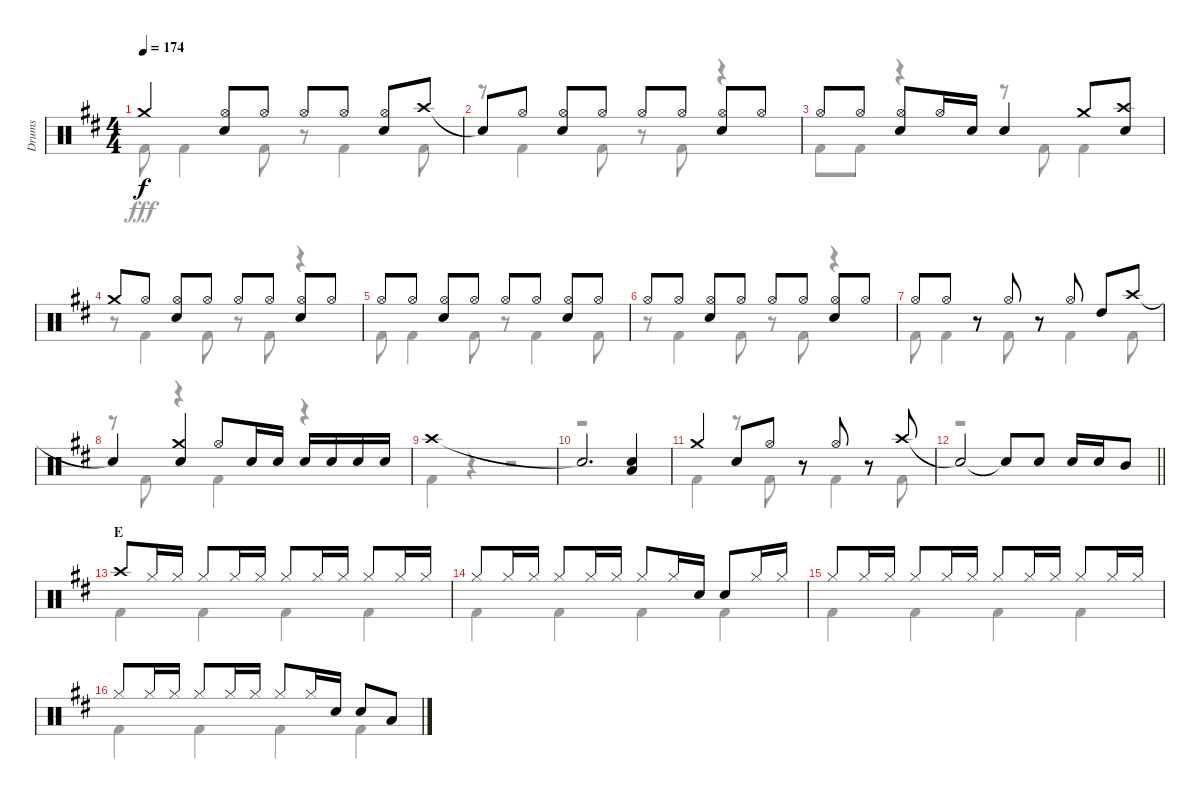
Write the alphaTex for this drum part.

\track ("Drums" "Drums") {instrument percussion}
\staff {score}
\articulation defaults
\voice
\ts (4 4)
\tempo 174
\clef neutral
\ks bminor "Crash medium (hit)".4{dy f}
("Hi-Hat (open)" "Snare (hit) 2").8 "Hi-Hat (open)".8 "Hi-Hat (open)".8 "Hi-Hat (open)".8 ("Hi-Hat (open)" "Snare (hit) 2").8 "Crash high (hit)".8 |
"Snare (hit)"{t}.8 "Hi-Hat (open)".8 ("Hi-Hat (open)" "Snare (hit) 2").8 "Hi-Hat (open)".8 "Hi-Hat (open)".8 "Hi-Hat (open)".8 ("Hi-Hat (open)" "Snare (hit) 2").8 "Hi-Hat (open)".8 |
"Hi-Hat (open)".8 "Hi-Hat (open)".8 ("Hi-Hat (open)" "Snare (hit) 2").8 "Hi-Hat (open)".16 "Snare (hit) 2".16 "Snare (hit) 2".4 "Crash medium (hit)".8 ("Crash high (hit)" "Snare (hit) 2").8 |
"Crash medium (hit)".8 "Hi-Hat (open)".8 ("Hi-Hat (open)" "Snare (hit) 2").8 "Hi-Hat (open)".8 "Hi-Hat (open)".8 "Hi-Hat (open)".8 ("Hi-Hat (open)" "Snare (hit) 2").8 "Hi-Hat (open)".8 |
"Hi-Hat (open)".8 "Hi-Hat (open)".8 ("Hi-Hat (open)" "Snare (hit) 2").8 "Hi-Hat (open)".8 "Hi-Hat (open)".8 "Hi-Hat (open)".8 ("Hi-Hat (open)" "Snare (hit) 2").8 "Hi-Hat (open)".8 |
"Hi-Hat (open)".8 "Hi-Hat (open)".8 ("Hi-Hat (open)" "Snare (hit) 2").8 "Hi-Hat (open)".8 "Hi-Hat (open)".8 "Hi-Hat (open)".8 ("Hi-Hat (open)" "Snare (hit) 2").8 "Hi-Hat (open)".8 |
"Hi-Hat (open)".8 "Hi-Hat (open)".8 r.8 "Hi-Hat (open)".8 r.8 "Hi-Hat (open)".8 "High Tom (hit)".8 "Crash high (hit)".8 |
"Snare (hit)"{t}.4 ("Crash medium (hit)" "Snare (hit) 2").4 "Hi-Hat (open)".8 "Snare (hit) 2".16 "Snare (hit) 2".16 "Snare (hit) 2".16 "Snare (hit) 2".16 "Snare (hit) 2".16 "Snare (hit) 2".16 |
"Crash high (hit)".1 |
"Snare (hit)"{t}.2{d} ("Snare (hit) 2" "Low Tom (hit)").4 |
"Crash medium (hit)".4 "Snare (hit) 2".8 "Hi-Hat (open)".8 r.8 "Hi-Hat (open)".8 r.8 "Crash high (hit)".8 |
\barLineRight lightlight "Snare (hit)"{t}.2 "Snare (hit)"{t}.8 "Snare (hit) 2".8 "Snare (hit) 2".16 "Snare (hit) 2".16 "Mid Tom (hit)".8
|
\section ("" "E")
"Crash high (hit)".8 "Hi-Hat (closed)".16 "Hi-Hat (closed)".16 "Hi-Hat (closed)".8 "Hi-Hat (closed)".16 "Hi-Hat (closed)".16 "Hi-Hat (closed)".8 "Hi-Hat (closed)".16 "Hi-Hat (closed)".16 "Hi-Hat (closed)".8 "Hi-Hat (closed)".16 "Hi-Hat (closed)".16 |
"Hi-Hat (closed)".8 "Hi-Hat (closed)".16 "Hi-Hat (closed)".16 "Hi-Hat (closed)".8 "Hi-Hat (closed)".16 "Hi-Hat (closed)".16 "Hi-Hat (closed)".8 "Hi-Hat (closed)".16 "Snare (hit) 2".16 "Snare (hit) 2".8 "Hi-Hat (closed)".16 "Hi-Hat (closed)".16 |
"Hi-Hat (closed)".8 "Hi-Hat (closed)".16 "Hi-Hat (closed)".16 "Hi-Hat (closed)".8 "Hi-Hat (closed)".16 "Hi-Hat (closed)".16 "Hi-Hat (closed)".8 "Hi-Hat (closed)".16 "Hi-Hat (closed)".16 "Hi-Hat (closed)".8 "Hi-Hat (closed)".16 "Hi-Hat (closed)".16 |
"Hi-Hat (closed)".8 "Hi-Hat (closed)".16 "Hi-Hat (closed)".16 "Hi-Hat (closed)".8 "Hi-Hat (closed)".16 "Hi-Hat (closed)".16 "Hi-Hat (closed)".8 "Hi-Hat (closed)".16 "Snare (hit) 2".16 "Snare (hit) 2".8 "Low Tom (hit)".8
\voice
\clef neutral
\ottava regular
\simile none
\ks bminor "Kick (hit) 2".8{dy fff} "Kick (hit) 2".4 "Kick (hit) 2".8
r.8 "Kick (hit) 2".4 "Kick (hit) 2".8 |
r.8 "Kick (hit) 2".4 "Kick (hit) 2".8 r.8 "Kick (hit) 2".8 r.4 |
"Kick (hit) 2".8 "Kick (hit) 2".8 r.4 r.8 "Kick (hit) 2".8 "Kick (hit) 2".4 |
r.8 "Kick (hit) 2".4 "Kick (hit) 2".8 r.8 "Kick (hit) 2".8 r.4 |
"Kick (hit) 2".8 "Kick (hit) 2".4 "Kick (hit) 2".8 r.8 "Kick (hit) 2".4 "Kick (hit) 2".8 |
r.8 "Kick (hit) 2".4 "Kick (hit) 2".8 r.8 "Kick (hit) 2".8 r.4 |
"Kick (hit) 2".8 "Kick (hit) 2".4 "Kick (hit) 2".8 r.8 "Kick (hit) 2".4 "Kick (hit) 2".8 |
r.8 "Kick (hit) 2".8 r.4 "Kick (hit) 2".4 r.4 |
"Kick (hit) 2".4 r.4 r.2 |
r.1 |
"Kick (hit) 2".4 r.8 "Kick (hit) 2".8 r.8 "Kick (hit) 2".4 "Kick (hit) 2".8 |
\barLineRight lightlight
r.1 |
"Kick (hit) 2".4 "Kick (hit) 2".4 "Kick (hit) 2".4 "Kick (hit) 2".4 |
"Kick (hit) 2".4 "Kick (hit) 2".4 "Kick (hit) 2".4 "Kick (hit) 2".4 |
"Kick (hit) 2".4 "Kick (hit) 2".4 "Kick (hit) 2".4 "Kick (hit) 2".4 |
"Kick (hit) 2".4 "Kick (hit) 2".4 "Kick (hit) 2".4 "Kick (hit) 2".4
